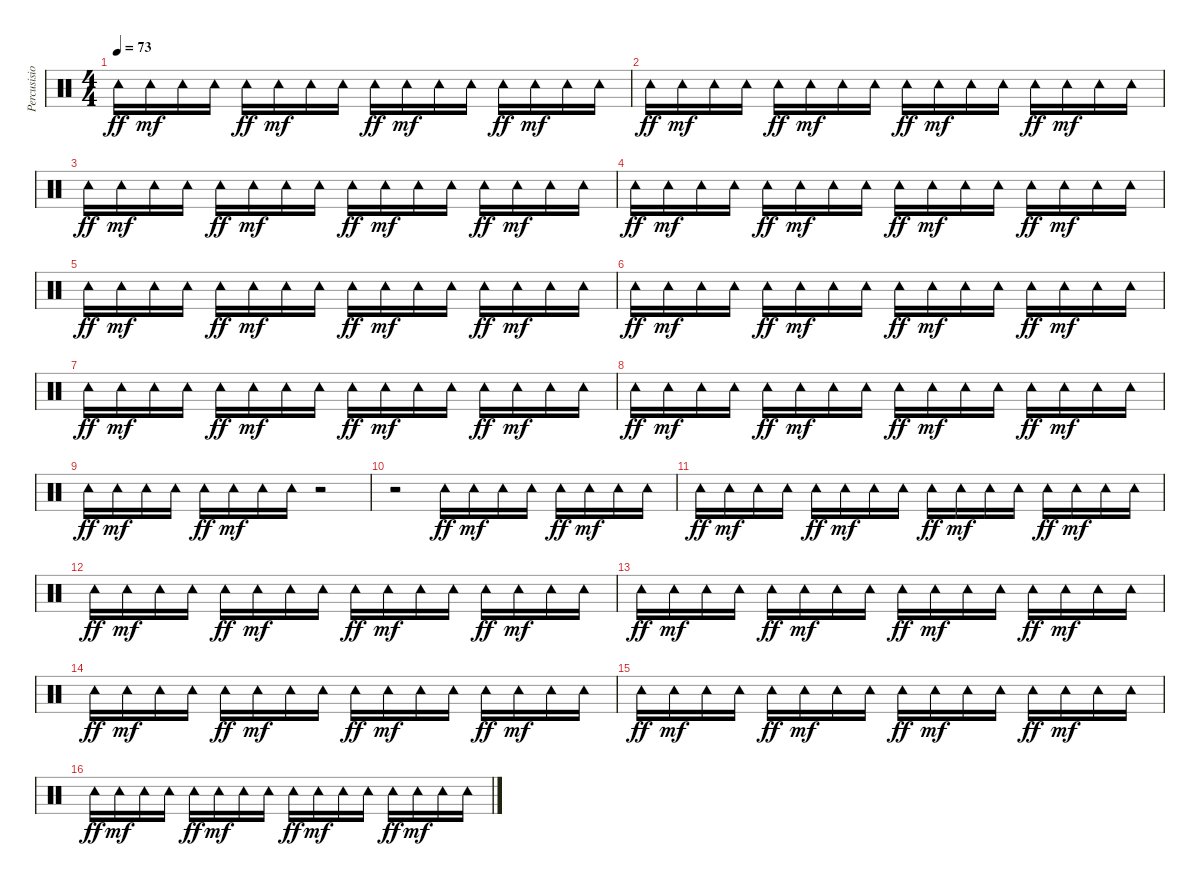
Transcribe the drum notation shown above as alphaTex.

\track ("Percusision" "Percusisio") {instrument percussion}
\staff {score}
\articulation defaults
\ts (4 4)
\tempo 73
\clef neutral
\ks c "Tambourine (hit)".16{dy ff} "Tambourine (hit)".16{dy mf} "Tambourine (hit)".16 "Tambourine (hit)".16 "Tambourine (hit)".16{dy ff} "Tambourine (hit)".16{dy mf} "Tambourine (hit)".16 "Tambourine (hit)".16 "Tambourine (hit)".16{dy ff} "Tambourine (hit)".16{dy mf} "Tambourine (hit)".16 "Tambourine (hit)".16 "Tambourine (hit)".16{dy ff} "Tambourine (hit)".16{dy mf} "Tambourine (hit)".16 "Tambourine (hit)".16
|
"Tambourine (hit)".16{dy ff} "Tambourine (hit)".16{dy mf} "Tambourine (hit)".16 "Tambourine (hit)".16 "Tambourine (hit)".16{dy ff} "Tambourine (hit)".16{dy mf} "Tambourine (hit)".16 "Tambourine (hit)".16 "Tambourine (hit)".16{dy ff} "Tambourine (hit)".16{dy mf} "Tambourine (hit)".16 "Tambourine (hit)".16 "Tambourine (hit)".16{dy ff} "Tambourine (hit)".16{dy mf} "Tambourine (hit)".16 "Tambourine (hit)".16 |
"Tambourine (hit)".16{dy ff} "Tambourine (hit)".16{dy mf} "Tambourine (hit)".16 "Tambourine (hit)".16 "Tambourine (hit)".16{dy ff} "Tambourine (hit)".16{dy mf} "Tambourine (hit)".16 "Tambourine (hit)".16 "Tambourine (hit)".16{dy ff} "Tambourine (hit)".16{dy mf} "Tambourine (hit)".16 "Tambourine (hit)".16 "Tambourine (hit)".16{dy ff} "Tambourine (hit)".16{dy mf} "Tambourine (hit)".16 "Tambourine (hit)".16 |
"Tambourine (hit)".16{dy ff} "Tambourine (hit)".16{dy mf} "Tambourine (hit)".16 "Tambourine (hit)".16 "Tambourine (hit)".16{dy ff} "Tambourine (hit)".16{dy mf} "Tambourine (hit)".16 "Tambourine (hit)".16 "Tambourine (hit)".16{dy ff} "Tambourine (hit)".16{dy mf} "Tambourine (hit)".16 "Tambourine (hit)".16 "Tambourine (hit)".16{dy ff} "Tambourine (hit)".16{dy mf} "Tambourine (hit)".16 "Tambourine (hit)".16 |
"Tambourine (hit)".16{dy ff} "Tambourine (hit)".16{dy mf} "Tambourine (hit)".16 "Tambourine (hit)".16 "Tambourine (hit)".16{dy ff} "Tambourine (hit)".16{dy mf} "Tambourine (hit)".16 "Tambourine (hit)".16 "Tambourine (hit)".16{dy ff} "Tambourine (hit)".16{dy mf} "Tambourine (hit)".16 "Tambourine (hit)".16 "Tambourine (hit)".16{dy ff} "Tambourine (hit)".16{dy mf} "Tambourine (hit)".16 "Tambourine (hit)".16 |
"Tambourine (hit)".16{dy ff} "Tambourine (hit)".16{dy mf} "Tambourine (hit)".16 "Tambourine (hit)".16 "Tambourine (hit)".16{dy ff} "Tambourine (hit)".16{dy mf} "Tambourine (hit)".16 "Tambourine (hit)".16 "Tambourine (hit)".16{dy ff} "Tambourine (hit)".16{dy mf} "Tambourine (hit)".16 "Tambourine (hit)".16 "Tambourine (hit)".16{dy ff} "Tambourine (hit)".16{dy mf} "Tambourine (hit)".16 "Tambourine (hit)".16 |
"Tambourine (hit)".16{dy ff} "Tambourine (hit)".16{dy mf} "Tambourine (hit)".16 "Tambourine (hit)".16 "Tambourine (hit)".16{dy ff} "Tambourine (hit)".16{dy mf} "Tambourine (hit)".16 "Tambourine (hit)".16 "Tambourine (hit)".16{dy ff} "Tambourine (hit)".16{dy mf} "Tambourine (hit)".16 "Tambourine (hit)".16 "Tambourine (hit)".16{dy ff} "Tambourine (hit)".16{dy mf} "Tambourine (hit)".16 "Tambourine (hit)".16 |
"Tambourine (hit)".16{dy ff} "Tambourine (hit)".16{dy mf} "Tambourine (hit)".16 "Tambourine (hit)".16 "Tambourine (hit)".16{dy ff} "Tambourine (hit)".16{dy mf} "Tambourine (hit)".16 "Tambourine (hit)".16 "Tambourine (hit)".16{dy ff} "Tambourine (hit)".16{dy mf} "Tambourine (hit)".16 "Tambourine (hit)".16 "Tambourine (hit)".16{dy ff} "Tambourine (hit)".16{dy mf} "Tambourine (hit)".16 "Tambourine (hit)".16 |
"Tambourine (hit)".16{dy ff} "Tambourine (hit)".16{dy mf} "Tambourine (hit)".16 "Tambourine (hit)".16 "Tambourine (hit)".16{dy ff} "Tambourine (hit)".16{dy mf} "Tambourine (hit)".16 "Tambourine (hit)".16 r.2 |
r.2 "Tambourine (hit)".16{dy ff} "Tambourine (hit)".16{dy mf} "Tambourine (hit)".16 "Tambourine (hit)".16 "Tambourine (hit)".16{dy ff} "Tambourine (hit)".16{dy mf} "Tambourine (hit)".16 "Tambourine (hit)".16 |
"Tambourine (hit)".16{dy ff} "Tambourine (hit)".16{dy mf} "Tambourine (hit)".16 "Tambourine (hit)".16 "Tambourine (hit)".16{dy ff} "Tambourine (hit)".16{dy mf} "Tambourine (hit)".16 "Tambourine (hit)".16 "Tambourine (hit)".16{dy ff} "Tambourine (hit)".16{dy mf} "Tambourine (hit)".16 "Tambourine (hit)".16 "Tambourine (hit)".16{dy ff} "Tambourine (hit)".16{dy mf} "Tambourine (hit)".16 "Tambourine (hit)".16 |
"Tambourine (hit)".16{dy ff} "Tambourine (hit)".16{dy mf} "Tambourine (hit)".16 "Tambourine (hit)".16 "Tambourine (hit)".16{dy ff} "Tambourine (hit)".16{dy mf} "Tambourine (hit)".16 "Tambourine (hit)".16 "Tambourine (hit)".16{dy ff} "Tambourine (hit)".16{dy mf} "Tambourine (hit)".16 "Tambourine (hit)".16 "Tambourine (hit)".16{dy ff} "Tambourine (hit)".16{dy mf} "Tambourine (hit)".16 "Tambourine (hit)".16 |
"Tambourine (hit)".16{dy ff} "Tambourine (hit)".16{dy mf} "Tambourine (hit)".16 "Tambourine (hit)".16 "Tambourine (hit)".16{dy ff} "Tambourine (hit)".16{dy mf} "Tambourine (hit)".16 "Tambourine (hit)".16 "Tambourine (hit)".16{dy ff} "Tambourine (hit)".16{dy mf} "Tambourine (hit)".16 "Tambourine (hit)".16 "Tambourine (hit)".16{dy ff} "Tambourine (hit)".16{dy mf} "Tambourine (hit)".16 "Tambourine (hit)".16 |
"Tambourine (hit)".16{dy ff} "Tambourine (hit)".16{dy mf} "Tambourine (hit)".16 "Tambourine (hit)".16 "Tambourine (hit)".16{dy ff} "Tambourine (hit)".16{dy mf} "Tambourine (hit)".16 "Tambourine (hit)".16 "Tambourine (hit)".16{dy ff} "Tambourine (hit)".16{dy mf} "Tambourine (hit)".16 "Tambourine (hit)".16 "Tambourine (hit)".16{dy ff} "Tambourine (hit)".16{dy mf} "Tambourine (hit)".16 "Tambourine (hit)".16 |
"Tambourine (hit)".16{dy ff} "Tambourine (hit)".16{dy mf} "Tambourine (hit)".16 "Tambourine (hit)".16 "Tambourine (hit)".16{dy ff} "Tambourine (hit)".16{dy mf} "Tambourine (hit)".16 "Tambourine (hit)".16 "Tambourine (hit)".16{dy ff} "Tambourine (hit)".16{dy mf} "Tambourine (hit)".16 "Tambourine (hit)".16 "Tambourine (hit)".16{dy ff} "Tambourine (hit)".16{dy mf} "Tambourine (hit)".16 "Tambourine (hit)".16 |
"Tambourine (hit)".16{dy ff} "Tambourine (hit)".16{dy mf} "Tambourine (hit)".16 "Tambourine (hit)".16 "Tambourine (hit)".16{dy ff} "Tambourine (hit)".16{dy mf} "Tambourine (hit)".16 "Tambourine (hit)".16 "Tambourine (hit)".16{dy ff} "Tambourine (hit)".16{dy mf} "Tambourine (hit)".16 "Tambourine (hit)".16 "Tambourine (hit)".16{dy ff} "Tambourine (hit)".16{dy mf} "Tambourine (hit)".16 "Tambourine (hit)".16
